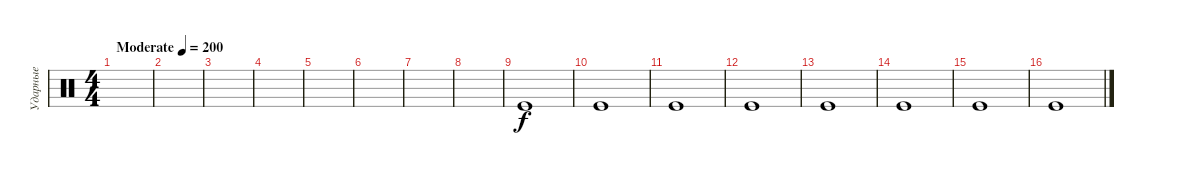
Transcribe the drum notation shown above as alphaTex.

\track ("Ударные" "Ударные") {instrument percussion}
\staff {score}
\articulation defaults
\ts (4 4)
\tempo (200 "Moderate")
\clef neutral
\ks c
|
|
|
|
|
|
|
|
"Kick (hit)".1 |
"Kick (hit)".1 |
"Kick (hit)".1 |
"Kick (hit)".1 |
"Kick (hit)".1 |
"Kick (hit)".1 |
"Kick (hit)".1 |
"Kick (hit)".1
